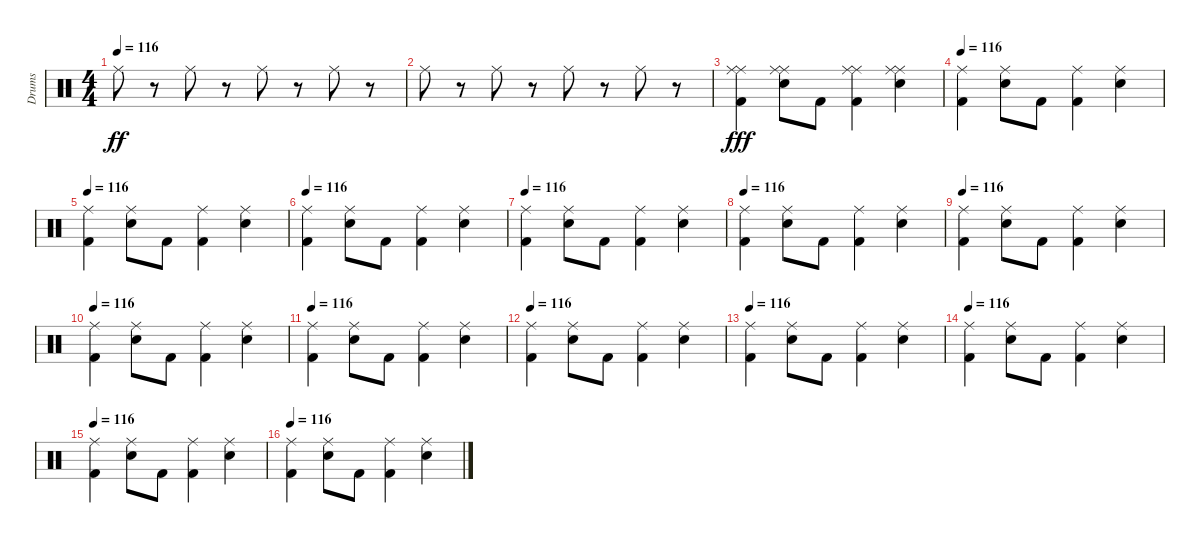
\track ("Drums" "Drums") {instrument percussion}
\staff {score}
\articulation defaults
\ts (4 4)
\tempo 116
\clef neutral
\ks c "Ride (middle)".8{dy ff}
r.8 "Ride (middle)".8 r.8 "Ride (middle)".8 r.8 "Ride (middle)".8 r.8 |
"Ride (middle)".8 r.8 "Ride (middle)".8 r.8 "Ride (middle)".8 r.8 "Ride (middle)".8 r.8 |
("Ride (middle)" "Ride (middle)" "Kick (hit) 2").4{dy fff} ("Ride (middle)" "Ride (middle)" "Snare (hit) 2").8 "Kick (hit) 2".8 ("Ride (middle)" "Ride (middle)" "Kick (hit) 2").4 ("Ride (middle)" "Ride (middle)" "Snare (hit) 2").4 |
\tempo 116
("Ride (middle)" "Kick (hit) 2").4 ("Ride (middle)" "Snare (hit) 2").8 "Kick (hit) 2".8 ("Ride (middle)" "Kick (hit) 2").4 ("Ride (middle)" "Snare (hit) 2").4 |
\tempo 116
("Ride (middle)" "Kick (hit) 2").4 ("Ride (middle)" "Snare (hit) 2").8 "Kick (hit) 2".8 ("Ride (middle)" "Kick (hit) 2").4 ("Ride (middle)" "Snare (hit) 2").4 |
\tempo 116
("Ride (middle)" "Kick (hit) 2").4 ("Ride (middle)" "Snare (hit) 2").8 "Kick (hit) 2".8 ("Ride (middle)" "Kick (hit) 2").4 ("Ride (middle)" "Snare (hit) 2").4 |
\tempo 116
("Ride (middle)" "Kick (hit) 2").4 ("Ride (middle)" "Snare (hit) 2").8 "Kick (hit) 2".8 ("Ride (middle)" "Kick (hit) 2").4 ("Ride (middle)" "Snare (hit) 2").4 |
\tempo 116
("Ride (middle)" "Kick (hit) 2").4 ("Ride (middle)" "Snare (hit) 2").8 "Kick (hit) 2".8 ("Ride (middle)" "Kick (hit) 2").4 ("Ride (middle)" "Snare (hit) 2").4 |
\tempo 116
("Ride (middle)" "Kick (hit) 2").4 ("Ride (middle)" "Snare (hit) 2").8 "Kick (hit) 2".8 ("Ride (middle)" "Kick (hit) 2").4 ("Ride (middle)" "Snare (hit) 2").4 |
\tempo 116
("Ride (middle)" "Kick (hit) 2").4 ("Ride (middle)" "Snare (hit) 2").8 "Kick (hit) 2".8 ("Ride (middle)" "Kick (hit) 2").4 ("Ride (middle)" "Snare (hit) 2").4 |
\tempo 116
("Ride (middle)" "Kick (hit) 2").4 ("Ride (middle)" "Snare (hit) 2").8 "Kick (hit) 2".8 ("Ride (middle)" "Kick (hit) 2").4 ("Ride (middle)" "Snare (hit) 2").4 |
\tempo 116
("Ride (middle)" "Kick (hit) 2").4 ("Ride (middle)" "Snare (hit) 2").8 "Kick (hit) 2".8 ("Ride (middle)" "Kick (hit) 2").4 ("Ride (middle)" "Snare (hit) 2").4 |
\tempo 116
("Ride (middle)" "Kick (hit) 2").4 ("Ride (middle)" "Snare (hit) 2").8 "Kick (hit) 2".8 ("Ride (middle)" "Kick (hit) 2").4 ("Ride (middle)" "Snare (hit) 2").4 |
\tempo 116
("Ride (middle)" "Kick (hit) 2").4 ("Ride (middle)" "Snare (hit) 2").8 "Kick (hit) 2".8 ("Ride (middle)" "Kick (hit) 2").4 ("Ride (middle)" "Snare (hit) 2").4 |
\tempo 116
("Ride (middle)" "Kick (hit) 2").4 ("Ride (middle)" "Snare (hit) 2").8 "Kick (hit) 2".8 ("Ride (middle)" "Kick (hit) 2").4 ("Ride (middle)" "Snare (hit) 2").4 |
\tempo 116
("Ride (middle)" "Kick (hit) 2").4 ("Ride (middle)" "Snare (hit) 2").8 "Kick (hit) 2".8 ("Ride (middle)" "Kick (hit) 2").4 ("Ride (middle)" "Snare (hit) 2").4
